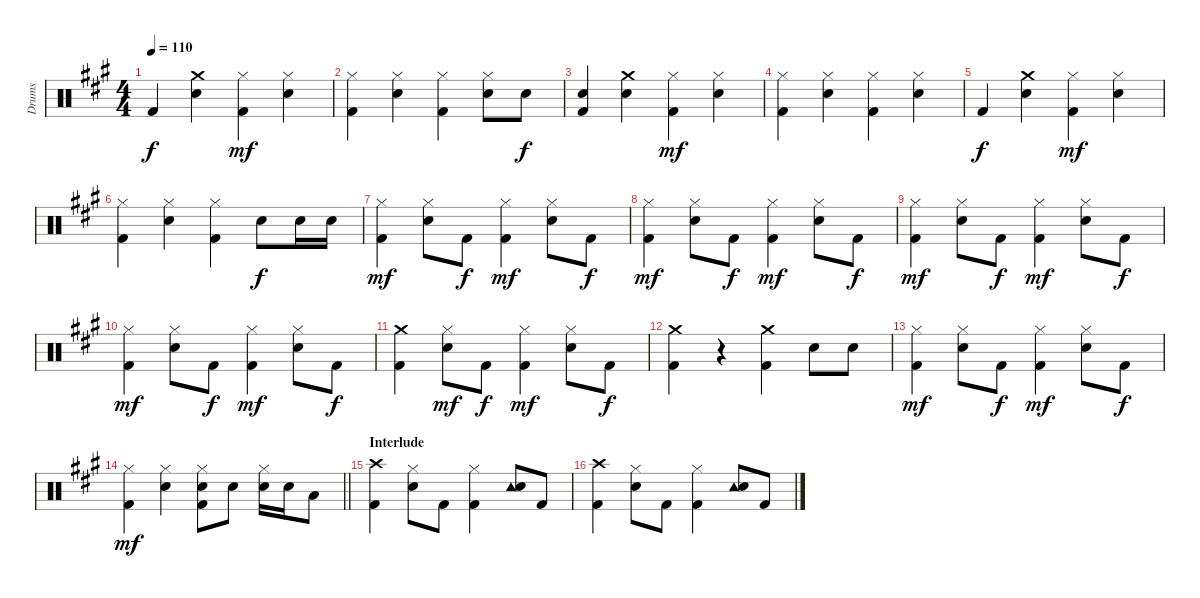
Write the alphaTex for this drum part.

\track ("Drums" "Drums") {instrument percussion}
\staff {score}
\articulation defaults
\ts (4 4)
\tempo 110
\clef neutral
\ks a "Kick (hit) 2".4{dy f}
("Crash medium (hit)" "Snare (hit) 2").4 ("Hi-Hat (closed)" "Kick (hit) 2").4{dy mf} ("Hi-Hat (closed)" "Snare (hit) 2").4 |
("Hi-Hat (closed)" "Kick (hit) 2").4 ("Hi-Hat (closed)" "Snare (hit) 2").4 ("Hi-Hat (closed)" "Kick (hit) 2").4 ("Hi-Hat (closed)" "Snare (hit) 2").8 "Snare (hit) 2".8{dy f} |
("Snare (hit) 2" "Kick (hit) 2").4 ("Crash medium (hit)" "Snare (hit) 2").4 ("Hi-Hat (closed)" "Kick (hit) 2").4{dy mf} ("Hi-Hat (closed)" "Snare (hit) 2").4 |
("Hi-Hat (closed)" "Kick (hit) 2").4 ("Hi-Hat (closed)" "Snare (hit) 2").4 ("Hi-Hat (closed)" "Kick (hit) 2").4 ("Hi-Hat (closed)" "Snare (hit) 2").4 |
"Kick (hit) 2".4{dy f} ("Crash medium (hit)" "Snare (hit) 2").4 ("Hi-Hat (closed)" "Kick (hit) 2").4{dy mf} ("Hi-Hat (closed)" "Snare (hit) 2").4 |
("Hi-Hat (closed)" "Kick (hit) 2").4 ("Hi-Hat (closed)" "Snare (hit) 2").4 ("Hi-Hat (closed)" "Kick (hit) 2").4 "Snare (hit) 2".8{dy f} "Snare (hit) 2".16 "Snare (hit) 2".16 |
("Hi-Hat (closed)" "Kick (hit) 2").4{dy mf} ("Hi-Hat (closed)" "Snare (hit) 2").8 "Kick (hit) 2".8{dy f} ("Hi-Hat (closed)" "Kick (hit) 2").4{dy mf} ("Hi-Hat (closed)" "Snare (hit) 2").8 "Kick (hit) 2".8{dy f} |
("Hi-Hat (closed)" "Kick (hit) 2").4{dy mf} ("Hi-Hat (closed)" "Snare (hit) 2").8 "Kick (hit) 2".8{dy f} ("Hi-Hat (closed)" "Kick (hit) 2").4{dy mf} ("Hi-Hat (closed)" "Snare (hit) 2").8 "Kick (hit) 2".8{dy f} |
("Hi-Hat (closed)" "Kick (hit) 2").4{dy mf} ("Hi-Hat (closed)" "Snare (hit) 2").8 "Kick (hit) 2".8{dy f} ("Hi-Hat (closed)" "Kick (hit) 2").4{dy mf} ("Hi-Hat (closed)" "Snare (hit) 2").8 "Kick (hit) 2".8{dy f} |
("Hi-Hat (closed)" "Kick (hit) 2").4{dy mf} ("Hi-Hat (closed)" "Snare (hit) 2").8 "Kick (hit) 2".8{dy f} ("Hi-Hat (closed)" "Kick (hit) 2").4{dy mf} ("Hi-Hat (closed)" "Snare (hit) 2").8 "Kick (hit) 2".8{dy f} |
("Crash medium (hit)" "Kick (hit) 2").4 ("Hi-Hat (closed)" "Snare (hit) 2").8{dy mf} "Kick (hit) 2".8{dy f} ("Hi-Hat (closed)" "Kick (hit) 2").4{dy mf} ("Hi-Hat (closed)" "Snare (hit) 2").8 "Kick (hit) 2".8{dy f} |
("Crash medium (hit)" "Kick (hit) 2").4 r.4 ("Crash medium (hit)" "Kick (hit) 2").4 "Snare (hit) 2".8 "Snare (hit) 2".8 |
("Hi-Hat (closed)" "Kick (hit) 2").4{dy mf} ("Hi-Hat (closed)" "Snare (hit) 2").8 "Kick (hit) 2".8{dy f} ("Hi-Hat (closed)" "Kick (hit) 2").4{dy mf} ("Hi-Hat (closed)" "Snare (hit) 2").8 "Kick (hit) 2".8{dy f} |
\barLineRight lightlight
("Hi-Hat (closed)" "Kick (hit) 2").4{dy mf} ("Hi-Hat (closed)" "Snare (hit) 2").4 ("Hi-Hat (closed)" "Snare (hit) 2" "Kick (hit) 2").8 "Snare (hit) 2".8 ("Hi-Hat (closed)" "Snare (hit) 2").16 "Snare (hit) 2".16 "Low Tom (hit)".8 |
\section ("" "Interlude")
("Crash high (hit)" "Kick (hit) 2").4 ("Hi-Hat (closed)" "Snare (hit) 2").8 "Kick (hit) 2".8 ("Hi-Hat (closed)" "Kick (hit) 2").4 ("Tambourine (hit)" "Snare (hit) 2").8 "Kick (hit) 2".8 |
("Crash high (hit)" "Kick (hit) 2").4 ("Hi-Hat (closed)" "Snare (hit) 2").8 "Kick (hit) 2".8 ("Hi-Hat (closed)" "Kick (hit) 2").4 ("Tambourine (hit)" "Snare (hit) 2").8 "Kick (hit) 2".8
